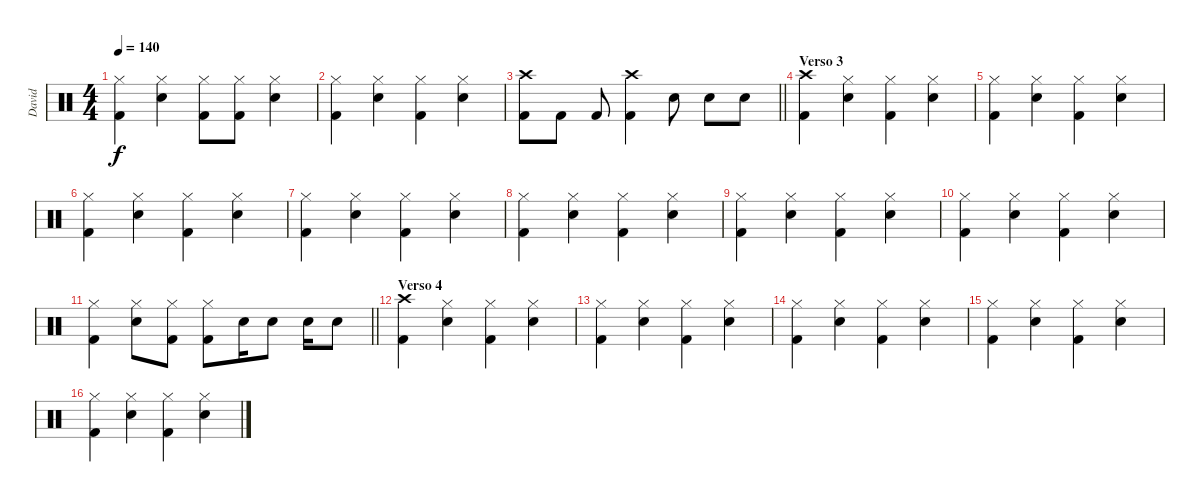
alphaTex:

\track ("David" "David") {instrument percussion}
\staff {score}
\articulation defaults
\ts (4 4)
\tempo 140
\clef neutral
\ks c
("Hi-Hat (closed)" "Kick (hit) 2").4{dy f} ("Hi-Hat (closed)" "Snare (hit) 2").4 ("Hi-Hat (closed)" "Kick (hit) 2").8 ("Hi-Hat (closed)" "Kick (hit) 2").8 ("Hi-Hat (closed)" "Snare (hit) 2").4 |
("Hi-Hat (closed)" "Kick (hit) 2").4 ("Hi-Hat (closed)" "Snare (hit) 2").4 ("Hi-Hat (closed)" "Kick (hit) 2").4 ("Hi-Hat (closed)" "Snare (hit) 2").4 |
\barLineRight lightlight
("Crash high (hit)" "Kick (hit) 2").8 "Kick (hit) 2".8 "Kick (hit) 2".8 ("Crash high (hit)" "Kick (hit) 2").4 "Snare (hit) 2".8 "Snare (hit) 2".8 "Snare (hit) 2".8 |
\section ("" "Verso 3")
("Crash high (hit)" "Kick (hit) 2").4 ("Hi-Hat (closed)" "Snare (hit) 2").4 ("Hi-Hat (closed)" "Kick (hit) 2").4 ("Hi-Hat (closed)" "Snare (hit) 2").4 |
("Hi-Hat (closed)" "Kick (hit) 2").4 ("Hi-Hat (closed)" "Snare (hit) 2").4 ("Hi-Hat (closed)" "Kick (hit) 2").4 ("Hi-Hat (closed)" "Snare (hit) 2").4 |
("Hi-Hat (closed)" "Kick (hit) 2").4 ("Hi-Hat (closed)" "Snare (hit) 2").4 ("Hi-Hat (closed)" "Kick (hit) 2").4 ("Hi-Hat (closed)" "Snare (hit) 2").4 |
("Hi-Hat (closed)" "Kick (hit) 2").4 ("Hi-Hat (closed)" "Snare (hit) 2").4 ("Hi-Hat (closed)" "Kick (hit) 2").4 ("Hi-Hat (closed)" "Snare (hit) 2").4 |
("Hi-Hat (closed)" "Kick (hit) 2").4 ("Hi-Hat (closed)" "Snare (hit) 2").4 ("Hi-Hat (closed)" "Kick (hit) 2").4 ("Hi-Hat (closed)" "Snare (hit) 2").4 |
("Hi-Hat (closed)" "Kick (hit) 2").4 ("Hi-Hat (closed)" "Snare (hit) 2").4 ("Hi-Hat (closed)" "Kick (hit) 2").4 ("Hi-Hat (closed)" "Snare (hit) 2").4 |
("Hi-Hat (closed)" "Kick (hit) 2").4 ("Hi-Hat (closed)" "Snare (hit) 2").4 ("Hi-Hat (closed)" "Kick (hit) 2").4 ("Hi-Hat (closed)" "Snare (hit) 2").4 |
\barLineRight lightlight
("Hi-Hat (closed)" "Kick (hit) 2").4 ("Hi-Hat (closed)" "Snare (hit) 2").8 ("Hi-Hat (closed)" "Kick (hit) 2").8 ("Hi-Hat (closed)" "Kick (hit) 2").8 "Snare (hit) 2".16 "Snare (hit) 2".8 "Snare (hit) 2".16 "Snare (hit) 2".8 |
\section ("" "Verso 4")
("Crash high (hit)" "Kick (hit) 2").4 ("Hi-Hat (closed)" "Snare (hit) 2").4 ("Hi-Hat (closed)" "Kick (hit) 2").4 ("Hi-Hat (closed)" "Snare (hit) 2").4 |
("Hi-Hat (closed)" "Kick (hit) 2").4 ("Hi-Hat (closed)" "Snare (hit) 2").4 ("Hi-Hat (closed)" "Kick (hit) 2").4 ("Hi-Hat (closed)" "Snare (hit) 2").4 |
("Hi-Hat (closed)" "Kick (hit) 2").4 ("Hi-Hat (closed)" "Snare (hit) 2").4 ("Hi-Hat (closed)" "Kick (hit) 2").4 ("Hi-Hat (closed)" "Snare (hit) 2").4 |
("Hi-Hat (closed)" "Kick (hit) 2").4 ("Hi-Hat (closed)" "Snare (hit) 2").4 ("Hi-Hat (closed)" "Kick (hit) 2").4 ("Hi-Hat (closed)" "Snare (hit) 2").4 |
("Hi-Hat (closed)" "Kick (hit) 2").4 ("Hi-Hat (closed)" "Snare (hit) 2").4 ("Hi-Hat (closed)" "Kick (hit) 2").4 ("Hi-Hat (closed)" "Snare (hit) 2").4
